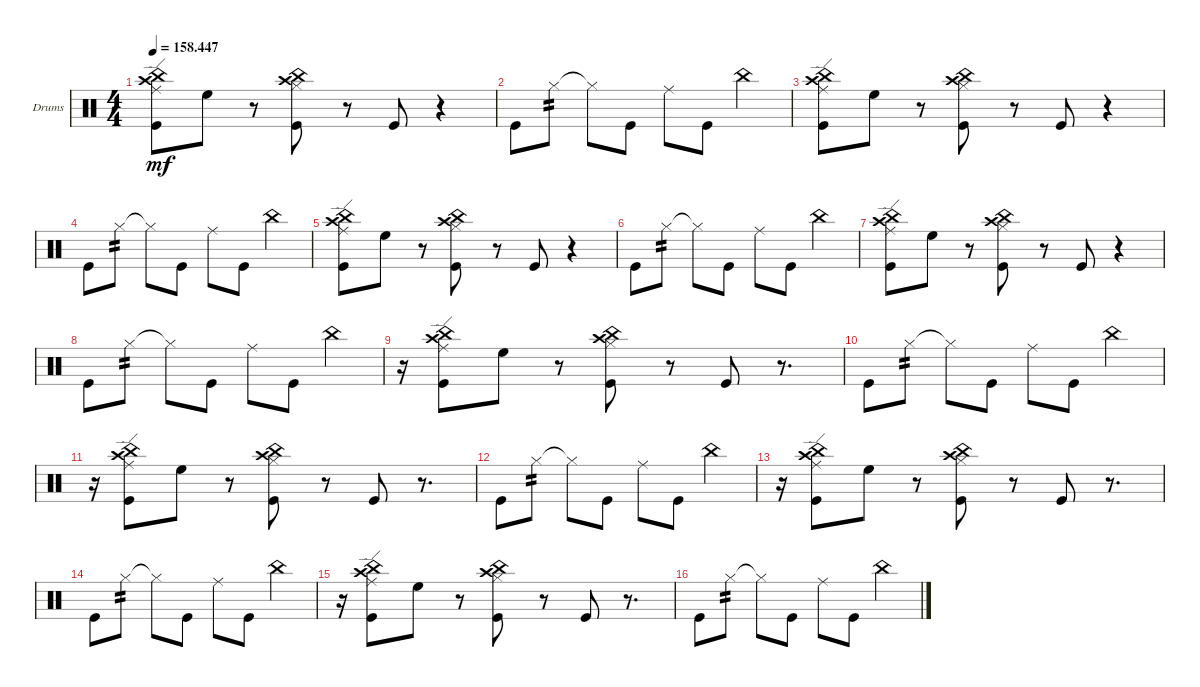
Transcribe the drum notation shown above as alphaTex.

\defaultSystemsLayout 4
\bracketExtendMode groupsimilarinstruments
\firstSystemTrackNameOrientation horizontal
\otherSystemsTrackNameOrientation horizontal
\track ("Drumkit" "Drums") {instrument percussion}
\staff {score}
\articulation defaults
\ts (4 4)
\tempo
158.447
\accidentals auto
\clef neutral
\ottava regular
\simile none
\ks c
("Kick (hit)" "Ride (edge)" "Crash high (hit)" "China (hit)").8{dy mf} "High Floor Tom (hit)".8 r.8 ("Kick (hit)" "Crash high (hit)" "China (hit)" "Hi-Hat (closed)").8 r.8 "Kick (hit)".8 r.4 |
"Kick (hit)".8 "Hi-Hat (closed)".8{tp 2} "Hi-Hat (closed)"{t}.8 "Kick (hit)".8 "Ride (middle)".8 "Kick (hit)".8 "China (hit)".4 |
("Kick (hit)" "Ride (edge)" "Crash high (hit)" "China (hit)").8 "High Floor Tom (hit)".8 r.8 ("Kick (hit)" "Crash high (hit)" "China (hit)" "Hi-Hat (closed)").8 r.8 "Kick (hit)".8 r.4 |
"Kick (hit)".8 "Hi-Hat (closed)".8{tp 2} "Hi-Hat (closed)"{t}.8 "Kick (hit)".8 "Ride (middle)".8 "Kick (hit)".8 "China (hit)".4 |
("Kick (hit)" "Ride (edge)" "Crash high (hit)" "China (hit)").8 "High Floor Tom (hit)".8 r.8 ("Kick (hit)" "Crash high (hit)" "China (hit)" "Hi-Hat (closed)").8 r.8 "Kick (hit)".8 r.4 |
"Kick (hit)".8 "Hi-Hat (closed)".8{tp 2} "Hi-Hat (closed)"{t}.8 "Kick (hit)".8 "Ride (middle)".8 "Kick (hit)".8 "China (hit)".4 |
("Kick (hit)" "Ride (edge)" "Crash high (hit)" "China (hit)").8 "High Floor Tom (hit)".8 r.8 ("Kick (hit)" "Crash high (hit)" "China (hit)" "Hi-Hat (closed)").8 r.8 "Kick (hit)".8 r.4 |
"Kick (hit)".8 "Hi-Hat (closed)".8{tp 2} "Hi-Hat (closed)"{t}.8 "Kick (hit)".8 "Ride (middle)".8 "Kick (hit)".8 "China (hit)".4 |
r.16 ("Kick (hit)" "Ride (edge)" "Crash high (hit)" "China (hit)").8 "High Floor Tom (hit)".8 r.8 ("Kick (hit)" "Crash high (hit)" "China (hit)" "Hi-Hat (closed)").8 r.8 "Kick (hit)".8 r.8{d} |
"Kick (hit)".8 "Hi-Hat (closed)".8{tp 2} "Hi-Hat (closed)"{t}.8 "Kick (hit)".8 "Ride (middle)".8 "Kick (hit)".8 "China (hit)".4 |
r.16 ("Kick (hit)" "Ride (edge)" "Crash high (hit)" "China (hit)").8 "High Floor Tom (hit)".8 r.8 ("Kick (hit)" "Crash high (hit)" "China (hit)" "Hi-Hat (closed)").8 r.8 "Kick (hit)".8 r.8{d} |
"Kick (hit)".8 "Hi-Hat (closed)".8{tp 2} "Hi-Hat (closed)"{t}.8 "Kick (hit)".8 "Ride (middle)".8 "Kick (hit)".8 "China (hit)".4 |
r.16 ("Kick (hit)" "Ride (edge)" "Crash high (hit)" "China (hit)").8 "High Floor Tom (hit)".8 r.8 ("Kick (hit)" "Crash high (hit)" "China (hit)" "Hi-Hat (closed)").8 r.8 "Kick (hit)".8 r.8{d} |
"Kick (hit)".8 "Hi-Hat (closed)".8{tp 2} "Hi-Hat (closed)"{t}.8 "Kick (hit)".8 "Ride (middle)".8 "Kick (hit)".8 "China (hit)".4 |
r.16 ("Kick (hit)" "Ride (edge)" "Crash high (hit)" "China (hit)").8 "High Floor Tom (hit)".8 r.8 ("Kick (hit)" "Crash high (hit)" "China (hit)" "Hi-Hat (closed)").8 r.8 "Kick (hit)".8 r.8{d} |
"Kick (hit)".8 "Hi-Hat (closed)".8{tp 2} "Hi-Hat (closed)"{t}.8 "Kick (hit)".8 "Ride (middle)".8 "Kick (hit)".8 "China (hit)".4
